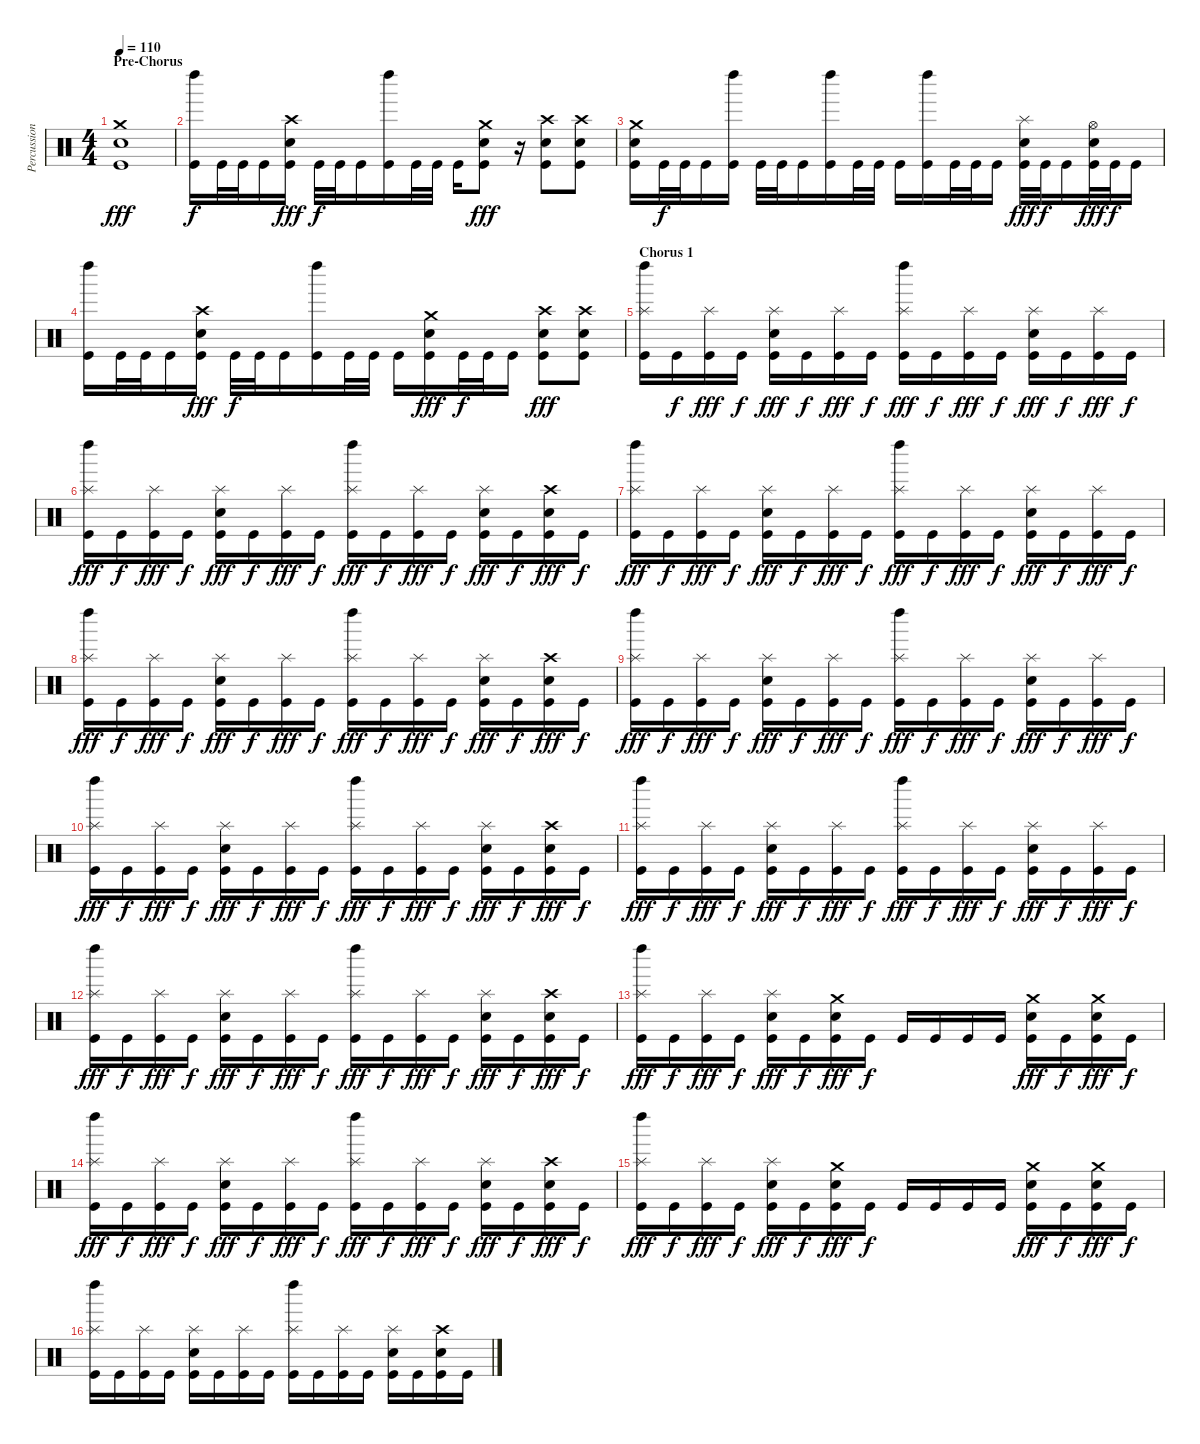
\track ("Percussions" "Percussion") {instrument percussion}
\staff {score}
\articulation defaults
\ts (4 4)
\section ("" "Pre-Chorus")
\tempo 110
\clef neutral
\ks c
("Kick (hit)" "Electric Snare (hit)" "Crash medium (hit)").1{dy fff} |
("Kick (hit)" "Left Maraca (hit)").16{dy f} "Kick (hit)".32 "Kick (hit)".32 "Kick (hit)".16 ("Kick (hit)" "Electric Snare (hit)" "Crash high (hit)").16{dy fff} "Kick (hit)".32{dy f} "Kick (hit)".32 "Kick (hit)".16 ("Kick (hit)" "Left Maraca (hit)").16 "Kick (hit)".32 "Kick (hit)".32 "Kick (hit)".16 ("Kick (hit)" "Electric Snare (hit)" "Crash medium (hit)").8{dy fff} r.16 ("Kick (hit)" "Electric Snare (hit)" "Crash high (hit)").8 ("Kick (hit)" "Electric Snare (hit)" "Crash high (hit)").8 |
("Kick (hit)" "Electric Snare (hit)" "Crash medium (hit)").16 "Kick (hit)".32{dy f} "Kick (hit)".32 "Kick (hit)".16 ("Kick (hit)" "Left Maraca (hit)").16 "Kick (hit)".32 "Kick (hit)".32 "Kick (hit)".16 ("Kick (hit)" "Left Maraca (hit)").16 "Kick (hit)".32 "Kick (hit)".32 "Kick (hit)".16 ("Kick (hit)" "Left Maraca (hit)").16 "Kick (hit)".32 "Kick (hit)".32 "Kick (hit)".16 ("Kick (hit)" "Electric Snare (hit)" "Splash (hit)").32{dy fff} "Kick (hit)".32{dy f} "Kick (hit)".16 ("Kick (hit)" "Electric Snare (hit)" "Hi-Hat (open)").32{dy fff} "Kick (hit)".32{dy f} "Kick (hit)".16 |
("Kick (hit)" "Left Maraca (hit)").16 "Kick (hit)".32 "Kick (hit)".32 "Kick (hit)".16 ("Kick (hit)" "Electric Snare (hit)" "Crash high (hit)").16{dy fff} "Kick (hit)".32{dy f} "Kick (hit)".32 "Kick (hit)".16 ("Kick (hit)" "Left Maraca (hit)").16 "Kick (hit)".32 "Kick (hit)".32 "Kick (hit)".16 ("Kick (hit)" "Electric Snare (hit)" "Crash medium (hit)").16{dy fff} "Kick (hit)".32{dy f} "Kick (hit)".32 "Kick (hit)".16 ("Kick (hit)" "Electric Snare (hit)" "Crash high (hit)").8{dy fff} ("Kick (hit)" "Electric Snare (hit)" "Crash high (hit)").8 |
\section ("" "Chorus 1")
("Kick (hit)" "Splash (hit)" "Left Maraca (hit)").16 "Kick (hit)".16{dy f} ("Kick (hit)" "Splash (hit)").16{dy fff} "Kick (hit)".16{dy f} ("Kick (hit)" "Splash (hit)" "Electric Snare (hit)").16{dy fff} "Kick (hit)".16{dy f} ("Kick (hit)" "Splash (hit)").16{dy fff} "Kick (hit)".16{dy f} ("Kick (hit)" "Splash (hit)" "Left Maraca (hit)").16{dy fff} "Kick (hit)".16{dy f} ("Kick (hit)" "Splash (hit)").16{dy fff} "Kick (hit)".16{dy f} ("Kick (hit)" "Splash (hit)" "Electric Snare (hit)").16{dy fff} "Kick (hit)".16{dy f} ("Kick (hit)" "Splash (hit)").16{dy fff} "Kick (hit)".16{dy f} |
("Kick (hit)" "Splash (hit)" "Left Maraca (hit)").16{dy fff} "Kick (hit)".16{dy f} ("Kick (hit)" "Splash (hit)").16{dy fff} "Kick (hit)".16{dy f} ("Kick (hit)" "Splash (hit)" "Electric Snare (hit)").16{dy fff} "Kick (hit)".16{dy f} ("Kick (hit)" "Splash (hit)").16{dy fff} "Kick (hit)".16{dy f} ("Kick (hit)" "Splash (hit)" "Left Maraca (hit)").16{dy fff} "Kick (hit)".16{dy f} ("Kick (hit)" "Splash (hit)").16{dy fff} "Kick (hit)".16{dy f} ("Kick (hit)" "Splash (hit)" "Electric Snare (hit)").16{dy fff} "Kick (hit)".16{dy f} ("Kick (hit)" "Crash high (hit)" "Electric Snare (hit)").16{dy fff} "Kick (hit)".16{dy f} |
("Kick (hit)" "Splash (hit)" "Left Maraca (hit)").16{dy fff} "Kick (hit)".16{dy f} ("Kick (hit)" "Splash (hit)").16{dy fff} "Kick (hit)".16{dy f} ("Kick (hit)" "Splash (hit)" "Electric Snare (hit)").16{dy fff} "Kick (hit)".16{dy f} ("Kick (hit)" "Splash (hit)").16{dy fff} "Kick (hit)".16{dy f} ("Kick (hit)" "Splash (hit)" "Left Maraca (hit)").16{dy fff} "Kick (hit)".16{dy f} ("Kick (hit)" "Splash (hit)").16{dy fff} "Kick (hit)".16{dy f} ("Kick (hit)" "Splash (hit)" "Electric Snare (hit)").16{dy fff} "Kick (hit)".16{dy f} ("Kick (hit)" "Splash (hit)").16{dy fff} "Kick (hit)".16{dy f} |
("Kick (hit)" "Splash (hit)" "Left Maraca (hit)").16{dy fff} "Kick (hit)".16{dy f} ("Kick (hit)" "Splash (hit)").16{dy fff} "Kick (hit)".16{dy f} ("Kick (hit)" "Splash (hit)" "Electric Snare (hit)").16{dy fff} "Kick (hit)".16{dy f} ("Kick (hit)" "Splash (hit)").16{dy fff} "Kick (hit)".16{dy f} ("Kick (hit)" "Splash (hit)" "Left Maraca (hit)").16{dy fff} "Kick (hit)".16{dy f} ("Kick (hit)" "Splash (hit)").16{dy fff} "Kick (hit)".16{dy f} ("Kick (hit)" "Splash (hit)" "Electric Snare (hit)").16{dy fff} "Kick (hit)".16{dy f} ("Kick (hit)" "Crash high (hit)" "Electric Snare (hit)").16{dy fff} "Kick (hit)".16{dy f} |
("Kick (hit)" "Splash (hit)" "Left Maraca (hit)").16{dy fff} "Kick (hit)".16{dy f} ("Kick (hit)" "Splash (hit)").16{dy fff} "Kick (hit)".16{dy f} ("Kick (hit)" "Splash (hit)" "Electric Snare (hit)").16{dy fff} "Kick (hit)".16{dy f} ("Kick (hit)" "Splash (hit)").16{dy fff} "Kick (hit)".16{dy f} ("Kick (hit)" "Splash (hit)" "Left Maraca (hit)").16{dy fff} "Kick (hit)".16{dy f} ("Kick (hit)" "Splash (hit)").16{dy fff} "Kick (hit)".16{dy f} ("Kick (hit)" "Splash (hit)" "Electric Snare (hit)").16{dy fff} "Kick (hit)".16{dy f} ("Kick (hit)" "Splash (hit)").16{dy fff} "Kick (hit)".16{dy f} |
("Kick (hit)" "Splash (hit)" "Left Maraca (hit)").16{dy fff} "Kick (hit)".16{dy f} ("Kick (hit)" "Splash (hit)").16{dy fff} "Kick (hit)".16{dy f} ("Kick (hit)" "Splash (hit)" "Electric Snare (hit)").16{dy fff} "Kick (hit)".16{dy f} ("Kick (hit)" "Splash (hit)").16{dy fff} "Kick (hit)".16{dy f} ("Kick (hit)" "Splash (hit)" "Left Maraca (hit)").16{dy fff} "Kick (hit)".16{dy f} ("Kick (hit)" "Splash (hit)").16{dy fff} "Kick (hit)".16{dy f} ("Kick (hit)" "Splash (hit)" "Electric Snare (hit)").16{dy fff} "Kick (hit)".16{dy f} ("Kick (hit)" "Crash high (hit)" "Electric Snare (hit)").16{dy fff} "Kick (hit)".16{dy f} |
("Kick (hit)" "Splash (hit)" "Left Maraca (hit)").16{dy fff} "Kick (hit)".16{dy f} ("Kick (hit)" "Splash (hit)").16{dy fff} "Kick (hit)".16{dy f} ("Kick (hit)" "Splash (hit)" "Electric Snare (hit)").16{dy fff} "Kick (hit)".16{dy f} ("Kick (hit)" "Splash (hit)").16{dy fff} "Kick (hit)".16{dy f} ("Kick (hit)" "Splash (hit)" "Left Maraca (hit)").16{dy fff} "Kick (hit)".16{dy f} ("Kick (hit)" "Splash (hit)").16{dy fff} "Kick (hit)".16{dy f} ("Kick (hit)" "Splash (hit)" "Electric Snare (hit)").16{dy fff} "Kick (hit)".16{dy f} ("Kick (hit)" "Splash (hit)").16{dy fff} "Kick (hit)".16{dy f} |
("Kick (hit)" "Splash (hit)" "Left Maraca (hit)").16{dy fff} "Kick (hit)".16{dy f} ("Kick (hit)" "Splash (hit)").16{dy fff} "Kick (hit)".16{dy f} ("Kick (hit)" "Splash (hit)" "Electric Snare (hit)").16{dy fff} "Kick (hit)".16{dy f} ("Kick (hit)" "Splash (hit)").16{dy fff} "Kick (hit)".16{dy f} ("Kick (hit)" "Splash (hit)" "Left Maraca (hit)").16{dy fff} "Kick (hit)".16{dy f} ("Kick (hit)" "Splash (hit)").16{dy fff} "Kick (hit)".16{dy f} ("Kick (hit)" "Splash (hit)" "Electric Snare (hit)").16{dy fff} "Kick (hit)".16{dy f} ("Kick (hit)" "Crash high (hit)" "Electric Snare (hit)").16{dy fff} "Kick (hit)".16{dy f} |
("Kick (hit)" "Splash (hit)" "Left Maraca (hit)").16{dy fff} "Kick (hit)".16{dy f} ("Kick (hit)" "Splash (hit)").16{dy fff} "Kick (hit)".16{dy f} ("Kick (hit)" "Splash (hit)" "Electric Snare (hit)").16{dy fff} "Kick (hit)".16{dy f} ("Kick (hit)" "Electric Snare (hit)" "Crash medium (hit)").16{dy fff} "Kick (hit)".16{dy f} "Kick (hit)".16 "Kick (hit)".16 "Kick (hit)".16 "Kick (hit)".16 ("Kick (hit)" "Electric Snare (hit)" "Crash medium (hit)").16{dy fff} "Kick (hit)".16{dy f} ("Kick (hit)" "Electric Snare (hit)" "Crash medium (hit)").16{dy fff} "Kick (hit)".16{dy f} |
("Kick (hit)" "Splash (hit)" "Left Maraca (hit)").16{dy fff} "Kick (hit)".16{dy f} ("Kick (hit)" "Splash (hit)").16{dy fff} "Kick (hit)".16{dy f} ("Kick (hit)" "Splash (hit)" "Electric Snare (hit)").16{dy fff} "Kick (hit)".16{dy f} ("Kick (hit)" "Splash (hit)").16{dy fff} "Kick (hit)".16{dy f} ("Kick (hit)" "Splash (hit)" "Left Maraca (hit)").16{dy fff} "Kick (hit)".16{dy f} ("Kick (hit)" "Splash (hit)").16{dy fff} "Kick (hit)".16{dy f} ("Kick (hit)" "Splash (hit)" "Electric Snare (hit)").16{dy fff} "Kick (hit)".16{dy f} ("Kick (hit)" "Crash high (hit)" "Electric Snare (hit)").16{dy fff} "Kick (hit)".16{dy f} |
("Kick (hit)" "Splash (hit)" "Left Maraca (hit)").16{dy fff} "Kick (hit)".16{dy f} ("Kick (hit)" "Splash (hit)").16{dy fff} "Kick (hit)".16{dy f} ("Kick (hit)" "Splash (hit)" "Electric Snare (hit)").16{dy fff} "Kick (hit)".16{dy f} ("Kick (hit)" "Electric Snare (hit)" "Crash medium (hit)").16{dy fff} "Kick (hit)".16{dy f} "Kick (hit)".16 "Kick (hit)".16 "Kick (hit)".16 "Kick (hit)".16 ("Kick (hit)" "Electric Snare (hit)" "Crash medium (hit)").16{dy fff} "Kick (hit)".16{dy f} ("Kick (hit)" "Electric Snare (hit)" "Crash medium (hit)").16{dy fff} "Kick (hit)".16{dy f} |
("Kick (hit)" "Splash (hit)" "Left Maraca (hit)").16 "Kick (hit)".16 ("Kick (hit)" "Splash (hit)").16 "Kick (hit)".16 ("Kick (hit)" "Splash (hit)" "Electric Snare (hit)").16 "Kick (hit)".16 ("Kick (hit)" "Splash (hit)").16 "Kick (hit)".16 ("Kick (hit)" "Splash (hit)" "Left Maraca (hit)").16 "Kick (hit)".16 ("Kick (hit)" "Splash (hit)").16 "Kick (hit)".16 ("Kick (hit)" "Splash (hit)" "Electric Snare (hit)").16 "Kick (hit)".16 ("Kick (hit)" "Crash high (hit)" "Electric Snare (hit)").16 "Kick (hit)".16
